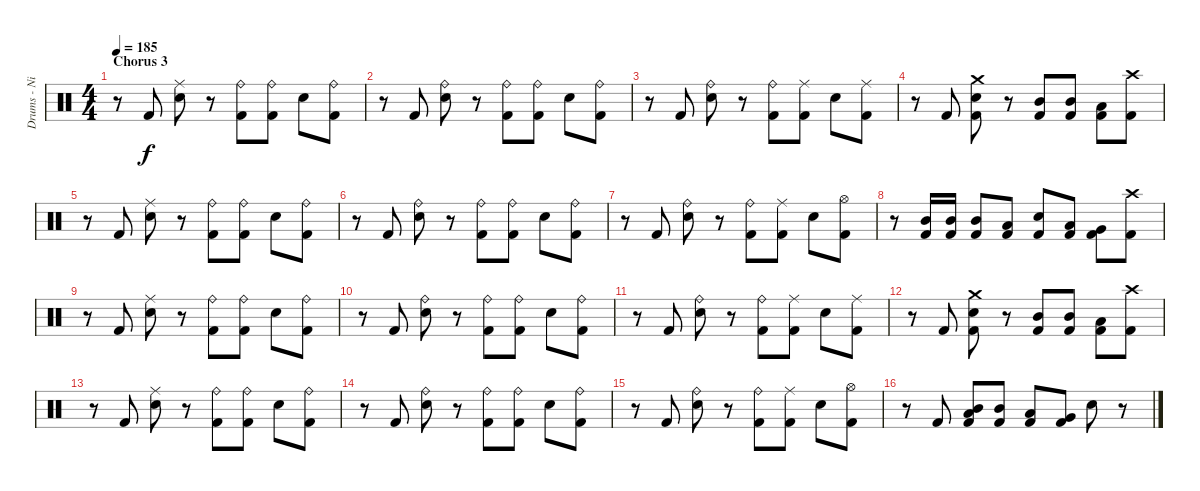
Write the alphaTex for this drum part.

\track ("Drums - Nicko" "Drums - Ni") {instrument percussion}
\staff {score}
\articulation defaults
\ts (4 4)
\section ("" "Chorus 3")
\tempo 185
\clef neutral
\ks c
r.8{dy f} "Kick (hit) 2".8 ("Ride (middle)" "Snare (hit) 2").8 r.8 ("Ride (bell)" "Kick (hit) 2").8 ("Ride (bell)" "Kick (hit) 2").8 "Snare (hit) 2".8 ("Ride (bell)" "Kick (hit) 2").8 |
r.8 "Kick (hit) 2".8 ("Ride (bell)" "Snare (hit) 2").8 r.8 ("Ride (bell)" "Kick (hit) 2").8 ("Ride (bell)" "Kick (hit) 2").8 "Snare (hit) 2".8 ("Ride (bell)" "Kick (hit) 2").8 |
r.8 "Kick (hit) 2".8 ("Ride (bell)" "Snare (hit) 2").8 r.8 ("Ride (bell)" "Kick (hit) 2").8 ("Ride (middle)" "Kick (hit) 2").8 "Snare (hit) 2".8 ("Ride (middle)" "Kick (hit) 2").8 |
r.8 "Kick (hit) 2".8 ("Crash medium (hit)" "Snare (hit) 2" "Kick (hit) 2").8 r.8 ("Mid Tom (hit)" "Kick (hit) 2").8 ("Mid Tom (hit)" "Kick (hit) 2").8 ("Low Tom (hit)" "Kick (hit) 2").8 ("Crash high (hit)" "Kick (hit) 2").8 |
r.8 "Kick (hit) 2".8 ("Ride (middle)" "Snare (hit) 2").8 r.8 ("Ride (bell)" "Kick (hit) 2").8 ("Ride (bell)" "Kick (hit) 2").8 "Snare (hit) 2".8 ("Ride (bell)" "Kick (hit) 2").8 |
r.8 "Kick (hit) 2".8 ("Ride (bell)" "Snare (hit) 2").8 r.8 ("Ride (bell)" "Kick (hit) 2").8 ("Ride (bell)" "Kick (hit) 2").8 "Snare (hit) 2".8 ("Ride (bell)" "Kick (hit) 2").8 |
r.8 "Kick (hit) 2".8 ("Ride (bell)" "Snare (hit) 2").8 r.8 ("Ride (bell)" "Kick (hit) 2").8 ("Ride (middle)" "Kick (hit) 2").8 "Snare (hit) 2".8 ("Hi-Hat (open)" "Kick (hit) 2").8 |
r.8 ("Mid Tom (hit)" "Kick (hit) 2").16 ("Mid Tom (hit)" "Kick (hit) 2").16 ("Mid Tom (hit)" "Kick (hit) 2").8 ("Low Tom (hit)" "Kick (hit) 2").8 ("Snare (hit) 2" "Kick (hit) 2").8 ("Low Tom (hit)" "Kick (hit) 2").8 ("Very Low Tom (hit)" "Kick (hit) 2").8 ("Crash high (hit)" "Kick (hit) 2").8 |
\section ("" "")
r.8 "Kick (hit) 2".8 ("Ride (middle)" "Snare (hit) 2").8 r.8 ("Ride (bell)" "Kick (hit) 2").8 ("Ride (bell)" "Kick (hit) 2").8 "Snare (hit) 2".8 ("Ride (bell)" "Kick (hit) 2").8 |
r.8 "Kick (hit) 2".8 ("Ride (bell)" "Snare (hit) 2").8 r.8 ("Ride (bell)" "Kick (hit) 2").8 ("Ride (bell)" "Kick (hit) 2").8 "Snare (hit) 2".8 ("Ride (bell)" "Kick (hit) 2").8 |
r.8 "Kick (hit) 2".8 ("Ride (bell)" "Snare (hit) 2").8 r.8 ("Ride (bell)" "Kick (hit) 2").8 ("Ride (middle)" "Kick (hit) 2").8 "Snare (hit) 2".8 ("Ride (middle)" "Kick (hit) 2").8 |
r.8 "Kick (hit) 2".8 ("Crash medium (hit)" "Snare (hit) 2" "Kick (hit) 2").8 r.8 ("Mid Tom (hit)" "Kick (hit) 2").8 ("Mid Tom (hit)" "Kick (hit) 2").8 ("Low Tom (hit)" "Kick (hit) 2").8 ("Crash high (hit)" "Kick (hit) 2").8 |
r.8 "Kick (hit) 2".8 ("Ride (middle)" "Snare (hit) 2").8 r.8 ("Ride (bell)" "Kick (hit) 2").8 ("Ride (bell)" "Kick (hit) 2").8 "Snare (hit) 2".8 ("Ride (bell)" "Kick (hit) 2").8 |
r.8 "Kick (hit) 2".8 ("Ride (bell)" "Snare (hit) 2").8 r.8 ("Ride (bell)" "Kick (hit) 2").8 ("Ride (bell)" "Kick (hit) 2").8 "Snare (hit) 2".8 ("Ride (bell)" "Kick (hit) 2").8 |
r.8 "Kick (hit) 2".8 ("Ride (bell)" "Snare (hit) 2").8 r.8 ("Ride (bell)" "Kick (hit) 2").8 ("Ride (middle)" "Kick (hit) 2").8 "Snare (hit) 2".8 ("Hi-Hat (open)" "Kick (hit) 2").8 |
r.8 "Kick (hit) 2".8 ("Mid Tom (hit)" "Low Floor Tom (hit)" "Kick (hit) 2").8 ("Mid Tom (hit)" "Kick (hit) 2").8 ("Low Tom (hit)" "Kick (hit) 2").8 ("Very Low Tom (hit)" "Kick (hit) 2").8 "Snare (hit) 2".8 r.8
